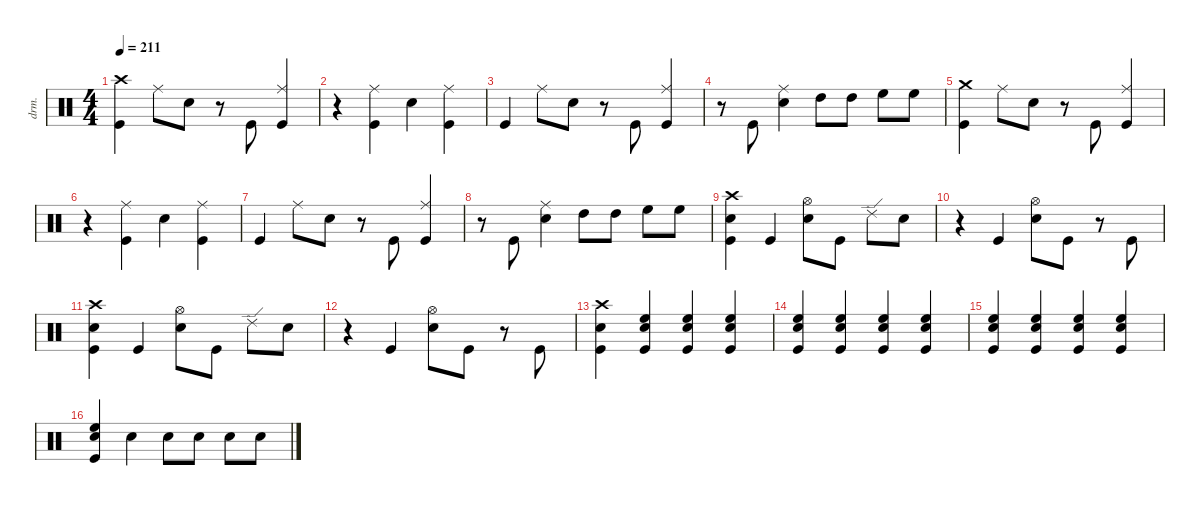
\defaultSystemsLayout 4
\hideDynamics
\bracketExtendMode nobrackets
\otherSystemsTrackNameOrientation horizontal
\track ("Drums" "drm.") {instrument percussion}
\staff {score}
\articulation defaults
\ts (4 4)
\tempo 211
\clef neutral
\ks c
("Kick (hit)" "Crash high (hit)"{acc #}).4{dy fff beam Down} "Ride (middle)"{acc #}.8{dy ff beam Down} "Snare (hit) 2".8{beam Down} r.8{beam Down} "Kick (hit)".8{dy mf beam Up} ("Kick (hit)" "Ride (middle)"{acc #}).4{dy ff beam Up} |
r.4{beam Down} ("Kick (hit)" "Ride (middle)"{acc #}).4{beam Down} "Snare (hit) 2".4{dy fff beam Down} ("Kick (hit)" "Ride (middle)"{acc #}).4{dy f beam Down} |
"Kick (hit)".4{dy fff beam Up} "Ride (middle)"{acc #}.8{dy f beam Down} "Snare (hit) 2".8{dy ff beam Down} r.8{beam Down} "Kick (hit)".8{dy mf beam Up} ("Kick (hit)" "Ride (middle)"{acc #}).4{dy ff beam Up} |
r.8{beam Down} "Kick (hit)".8{beam Up} ("Snare (hit) 2" "Ride (middle)"{acc #}).4{beam Down} "High Tom (hit)".8{beam Down} "High Tom (hit)".8{dy mf beam Down} "High Floor Tom (hit)".8{dy ff beam Down} "High Floor Tom (hit)".8{dy mf beam Down} |
("Kick (hit)" "Crash medium (hit)").4{dy fff beam Down} "Ride (middle)"{acc #}.8{dy ff beam Down} "Snare (hit) 2".8{beam Down} r.8{beam Down} "Kick (hit)".8{dy mf beam Up} ("Kick (hit)" "Ride (middle)"{acc #}).4{dy ff beam Up} |
r.4{beam Down} ("Kick (hit)" "Ride (middle)"{acc #}).4{beam Down} "Snare (hit) 2".4{dy fff beam Down} ("Kick (hit)" "Ride (middle)"{acc #}).4{dy f beam Down} |
"Kick (hit)".4{dy fff beam Up} "Ride (middle)"{acc #}.8{dy f beam Down} "Snare (hit) 2".8{dy ff beam Down} r.8{beam Down} "Kick (hit)".8{dy mf beam Up} ("Kick (hit)" "Ride (middle)"{acc #}).4{dy ff beam Up} |
r.8{beam Down} "Kick (hit)".8{beam Up} ("Snare (hit) 2" "Ride (middle)"{acc #}).4{dy fff beam Down} "High Tom (hit)".8{dy ff beam Down} "High Tom (hit)".8{dy mf beam Down} "High Floor Tom (hit)".8{dy ff beam Down} "High Floor Tom (hit)".8{dy mf beam Down} |
("Kick (hit)" "Snare (hit) 2" "Crash high (hit)"{acc #}).4{dy ff beam Down} "Kick (hit)".4{beam Up} ("Snare (hit) 2" "Hi-Hat (open)"{acc #}).8{beam Down} "Kick (hit)".8{beam Down} "Ride (edge) 2".8{beam Down} "Snare (hit) 2".8{beam Down} |
r.4{beam Down} "Kick (hit)".4{beam Up} ("Snare (hit) 2" "Hi-Hat (open)"{acc #}).8{beam Down} "Kick (hit)".8{beam Down} r.8{beam Down} "Kick (hit)".8{beam Up} |
("Snare (hit) 2" "Kick (hit)" "Crash high (hit)"{acc #}).4{beam Down} "Kick (hit)".4{beam Up} ("Snare (hit) 2" "Hi-Hat (open)"{acc #}).8{beam Down} "Kick (hit)".8{beam Down} "Ride (edge) 2".8{beam Down} "Snare (hit) 2".8{beam Down} |
r.4{beam Down} "Kick (hit)".4{beam Up} ("Snare (hit) 2" "Hi-Hat (open)"{acc #}).8{beam Down} "Kick (hit)".8{beam Down} r.8{beam Down} "Kick (hit)".8{beam Up} |
("Snare (hit) 2" "Kick (hit)" "Crash high (hit)"{acc #}).4{beam Down} ("Kick (hit)" "Snare (hit) 2" "High Floor Tom (hit)").4{beam Up} ("Snare (hit) 2" "Kick (hit)" "High Floor Tom (hit)").4{beam Up} ("Snare (hit) 2" "Kick (hit)" "High Floor Tom (hit)").4{beam Up} |
("Kick (hit)" "Snare (hit) 2" "High Floor Tom (hit)").4{beam Up} ("Kick (hit)" "Snare (hit) 2" "High Floor Tom (hit)").4{beam Up} ("Snare (hit) 2" "Kick (hit)" "High Floor Tom (hit)").4{beam Up} ("Kick (hit)" "Snare (hit) 2" "High Floor Tom (hit)").4{beam Up} |
("Kick (hit)" "Snare (hit) 2" "High Floor Tom (hit)").4{beam Up} ("Snare (hit) 2" "Kick (hit)" "High Floor Tom (hit)").4{beam Up} ("Kick (hit)" "Snare (hit) 2" "High Floor Tom (hit)").4{beam Up} ("Kick (hit)" "Snare (hit) 2" "High Floor Tom (hit)").4{beam Up} |
("Kick (hit)" "Snare (hit) 2" "High Floor Tom (hit)").4{beam Up} "Snare (hit) 2".4{beam Down} "Snare (hit) 2".8{dy f beam Down} "Snare (hit) 2".8{dy mf beam Down} "Snare (hit) 2".8{dy f beam Down} "Snare (hit) 2".8{dy mf beam Down}
